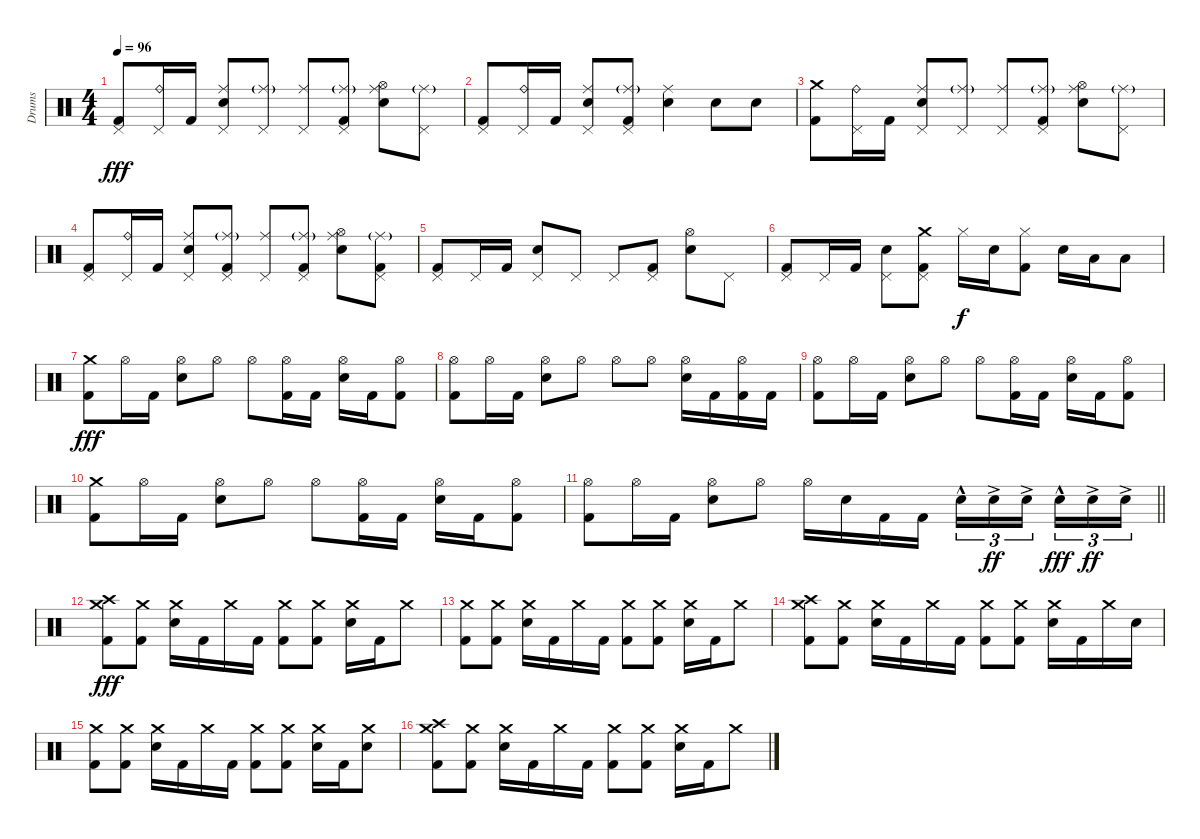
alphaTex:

\track ("Drums" "Drums") {instrument percussion}
\staff {score}
\articulation defaults
\ts (4 4)
\tempo 96
\clef neutral
\ks c
("Pedal Hi-Hat (hit)" "Kick (hit) 2").8{dy fff} ("Ride (bell)" "Pedal Hi-Hat (hit)").16 "Kick (hit) 2".16 ("Ride (middle)" "Pedal Hi-Hat (hit)" "Electric Snare (hit)").8 ("Ride (middle)"{g} "Pedal Hi-Hat (hit)").8 ("Ride (middle)" "Pedal Hi-Hat (hit)").8 ("Ride (middle)"{g} "Pedal Hi-Hat (hit)" "Kick (hit) 2").8 ("Ride (middle)" "Hi-Hat (open)" "Electric Snare (hit)").8 ("Ride (middle)"{g} "Pedal Hi-Hat (hit)").8 |
("Pedal Hi-Hat (hit)" "Kick (hit) 2").8 ("Ride (bell)" "Pedal Hi-Hat (hit)").16 "Kick (hit) 2".16 ("Ride (middle)" "Pedal Hi-Hat (hit)" "Electric Snare (hit)").8 ("Ride (middle)"{g} "Pedal Hi-Hat (hit)" "Kick (hit) 2").8 ("Ride (middle)" "Electric Snare (hit)").4 "Electric Snare (hit)".8 "Electric Snare (hit)".8 |
("Crash medium (hit)" "Kick (hit) 2").8 ("Ride (bell)" "Pedal Hi-Hat (hit)").16 "Kick (hit) 2".16 ("Ride (middle)" "Pedal Hi-Hat (hit)" "Electric Snare (hit)").8 ("Ride (middle)"{g} "Pedal Hi-Hat (hit)").8 ("Ride (middle)" "Pedal Hi-Hat (hit)").8 ("Ride (middle)"{g} "Pedal Hi-Hat (hit)" "Kick (hit) 2").8 ("Ride (middle)" "Hi-Hat (open)" "Electric Snare (hit)").8 ("Ride (middle)"{g} "Pedal Hi-Hat (hit)").8 |
("Pedal Hi-Hat (hit)" "Kick (hit) 2").8 ("Ride (bell)" "Pedal Hi-Hat (hit)").16 "Kick (hit) 2".16 ("Ride (middle)" "Pedal Hi-Hat (hit)" "Electric Snare (hit)").8 ("Ride (middle)"{g} "Pedal Hi-Hat (hit)" "Kick (hit) 2").8 ("Ride (middle)" "Pedal Hi-Hat (hit)").8 ("Ride (middle)"{g} "Pedal Hi-Hat (hit)" "Kick (hit) 2").8 ("Ride (middle)" "Hi-Hat (open)" "Electric Snare (hit)").8 ("Ride (middle)"{g} "Pedal Hi-Hat (hit)" "Kick (hit) 2").8 |
("Pedal Hi-Hat (hit)" "Kick (hit) 2").8 "Pedal Hi-Hat (hit)".16 "Kick (hit) 2".16 ("Pedal Hi-Hat (hit)" "Electric Snare (hit)").8 "Pedal Hi-Hat (hit)".8 "Pedal Hi-Hat (hit)".8 ("Pedal Hi-Hat (hit)" "Kick (hit) 2").8 ("Hi-Hat (open)" "Electric Snare (hit)").8 "Pedal Hi-Hat (hit)".8 |
("Pedal Hi-Hat (hit)" "Kick (hit) 2").8 "Pedal Hi-Hat (hit)".16 "Kick (hit) 2".16 ("Pedal Hi-Hat (hit)" "Electric Snare (hit)").8 ("Crash medium (hit)" "Pedal Hi-Hat (hit)" "Kick (hit) 2").8 "Hi-Hat (closed)".16{dy f} "Electric Snare (hit)".16 ("Hi-Hat (closed)" "Kick (hit) 2").8 "Electric Snare (hit)".16 "Low Tom (hit)".16 "Low Tom (hit)".8 |
("Crash medium (hit)" "Kick (hit) 2").8{dy fff} "Hi-Hat (open)".16 "Kick (hit) 2".16 ("Hi-Hat (open)" "Electric Snare (hit)").8 "Hi-Hat (open)".8 "Hi-Hat (open)".8 ("Hi-Hat (open)" "Kick (hit) 2").16 "Kick (hit) 2".16 ("Hi-Hat (open)" "Electric Snare (hit)").16 "Kick (hit) 2".16 ("Hi-Hat (open)" "Kick (hit) 2").8 |
("Hi-Hat (open)" "Kick (hit) 2").8 "Hi-Hat (open)".16 "Kick (hit) 2".16 ("Hi-Hat (open)" "Electric Snare (hit)").8 "Hi-Hat (open)".8 "Hi-Hat (open)".8 "Hi-Hat (open)".8 ("Hi-Hat (open)" "Electric Snare (hit)").16 "Kick (hit) 2".16 ("Hi-Hat (open)" "Kick (hit) 2").16 "Kick (hit) 2".16 |
("Hi-Hat (open)" "Kick (hit) 2").8 "Hi-Hat (open)".16 "Kick (hit) 2".16 ("Hi-Hat (open)" "Electric Snare (hit)").8 "Hi-Hat (open)".8 "Hi-Hat (open)".8 ("Hi-Hat (open)" "Kick (hit) 2").16 "Kick (hit) 2".16 ("Hi-Hat (open)" "Electric Snare (hit)").16 "Kick (hit) 2".16 ("Hi-Hat (open)" "Kick (hit) 2").8 |
("Crash medium (hit)" "Kick (hit) 2").8 "Hi-Hat (open)".16 "Kick (hit) 2".16 ("Hi-Hat (open)" "Electric Snare (hit)").8 "Hi-Hat (open)".8 "Hi-Hat (open)".8 ("Hi-Hat (open)" "Kick (hit) 2").16 "Kick (hit) 2".16 ("Hi-Hat (open)" "Electric Snare (hit)").16 "Kick (hit) 2".16 ("Hi-Hat (open)" "Kick (hit) 2").8 |
\barLineRight lightlight
("Hi-Hat (open)" "Kick (hit) 2").8 "Hi-Hat (open)".16 "Kick (hit) 2".16 ("Hi-Hat (open)" "Electric Snare (hit)").8 "Hi-Hat (open)".8 "Hi-Hat (open)".16 "Electric Snare (hit)".16 "Kick (hit) 2".16 "Kick (hit) 2".16 "Electric Snare (hit)"{hac}.16{tu (3 2)} "Electric Snare (hit)"{ac}.16{tu (3 2) dy ff} "Electric Snare (hit)"{ac}.16{tu (3 2) beam splitsecondary} "Electric Snare (hit)"{hac}.16{tu (3 2) dy fff} "Electric Snare (hit)"{ac}.16{tu (3 2) dy ff} "Electric Snare (hit)"{ac}.16{tu (3 2)} |
("Crash medium (hit)" "Crash high (hit)" "Kick (hit) 2").8{dy fff} ("Crash medium (hit)" "Kick (hit) 2").8 ("Crash medium (hit)" "Electric Snare (hit)").16 "Kick (hit) 2".16 "Crash medium (hit)".16 "Kick (hit) 2".16 ("Crash medium (hit)" "Kick (hit) 2").8 ("Crash medium (hit)" "Kick (hit) 2").8 ("Crash medium (hit)" "Electric Snare (hit)").16 "Kick (hit) 2".16 "Crash medium (hit)".8 |
("Crash medium (hit)" "Kick (hit) 2").8 ("Crash medium (hit)" "Kick (hit) 2").8 ("Crash medium (hit)" "Electric Snare (hit)").16 "Kick (hit) 2".16 "Crash medium (hit)".16 "Kick (hit) 2".16 ("Crash medium (hit)" "Kick (hit) 2").8 ("Crash medium (hit)" "Kick (hit) 2").8 ("Crash medium (hit)" "Electric Snare (hit)").16 "Kick (hit) 2".16 "Crash medium (hit)".8 |
("Crash medium (hit)" "Crash high (hit)" "Kick (hit) 2").8 ("Crash medium (hit)" "Kick (hit) 2").8 ("Crash medium (hit)" "Electric Snare (hit)").16 "Kick (hit) 2".16 "Crash medium (hit)".16 "Kick (hit) 2".16 ("Crash medium (hit)" "Kick (hit) 2").8 ("Crash medium (hit)" "Kick (hit) 2").8 ("Crash medium (hit)" "Electric Snare (hit)").16 "Kick (hit) 2".16 "Crash medium (hit)".16 "Electric Snare (hit)".16 |
("Crash medium (hit)" "Kick (hit) 2").8 ("Crash medium (hit)" "Kick (hit) 2").8 ("Crash medium (hit)" "Electric Snare (hit)").16 "Kick (hit) 2".16 "Crash medium (hit)".16 "Kick (hit) 2".16 ("Crash medium (hit)" "Kick (hit) 2").8 ("Crash medium (hit)" "Kick (hit) 2").8 ("Crash medium (hit)" "Electric Snare (hit)").16 "Kick (hit) 2".16 ("Crash medium (hit)" "Electric Snare (hit)").8 |
("Crash medium (hit)" "Crash high (hit)" "Kick (hit) 2").8 ("Crash medium (hit)" "Kick (hit) 2").8 ("Crash medium (hit)" "Electric Snare (hit)").16 "Kick (hit) 2".16 "Crash medium (hit)".16 "Kick (hit) 2".16 ("Crash medium (hit)" "Kick (hit) 2").8 ("Crash medium (hit)" "Kick (hit) 2").8 ("Crash medium (hit)" "Electric Snare (hit)").16 "Kick (hit) 2".16 "Crash medium (hit)".8
